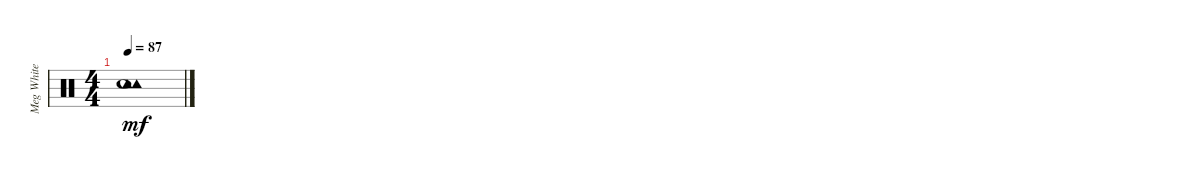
\track ("Meg White - Drums" "Meg White ") {instrument percussion}
\staff {score}
\articulation defaults
\ts (4 4)
\tempo 87
\clef neutral
\ks c
("Tambourine (hit)" "Tambourine (hit)" "Snare (hit) 2").1{dy mf}
